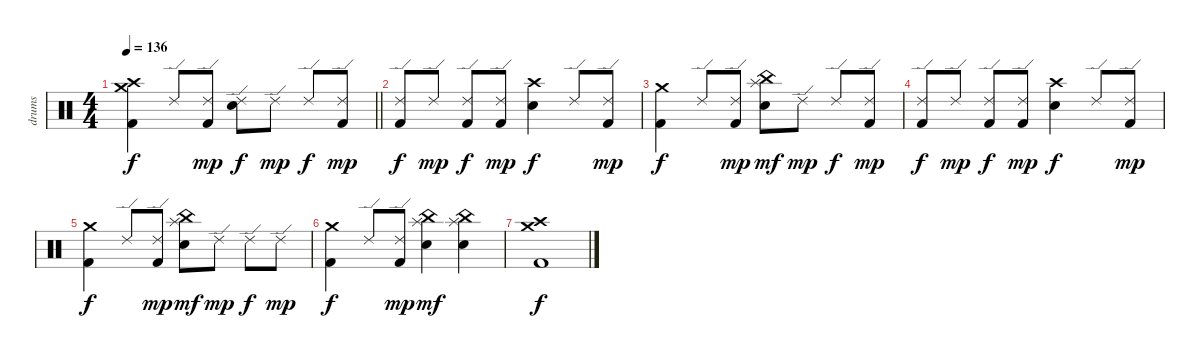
\track ("drums" "drums") {instrument percussion}
\staff {score}
\articulation defaults
\ts (4 4)
\tempo 136
\clef neutral
\barLineRight lightlight
\ks c
("Crash high (hit)" "Crash medium (hit)" "Kick (hit) 2").4{dy f} "Ride (edge) 2".8 ("Ride (edge) 2" "Kick (hit) 2").8{dy mp} ("Ride (edge) 2" "Electric Snare (hit)").8{dy f} "Ride (edge) 2".8{dy mp} "Ride (edge) 2".8{dy f} ("Ride (edge) 2" "Kick (hit) 2").8{dy mp} |
("Ride (edge) 2" "Kick (hit) 2").8{dy f} "Ride (edge) 2".8{dy mp} ("Ride (edge) 2" "Kick (hit) 2").8{dy f} ("Ride (edge) 2" "Kick (hit) 2").8{dy mp} ("Crash high (hit)" "Electric Snare (hit)").4{dy f} "Ride (edge) 2".8 ("Ride (edge) 2" "Kick (hit) 2").8{dy mp} |
("Crash medium (hit)" "Kick (hit) 2").4{dy f} "Ride (edge) 2".8 ("Ride (edge) 2" "Kick (hit) 2").8{dy mp} ("Splash (hit)" "China (hit)" "Electric Snare (hit)").8{dy mf} "Ride (edge) 2".8{dy mp} "Ride (edge) 2".8{dy f} ("Ride (edge) 2" "Kick (hit) 2").8{dy mp} |
("Ride (edge) 2" "Kick (hit) 2").8{dy f} "Ride (edge) 2".8{dy mp} ("Ride (edge) 2" "Kick (hit) 2").8{dy f} ("Ride (edge) 2" "Kick (hit) 2").8{dy mp} ("Crash high (hit)" "Electric Snare (hit)").4{dy f} "Ride (edge) 2".8 ("Ride (edge) 2" "Kick (hit) 2").8{dy mp} |
("Crash medium (hit)" "Kick (hit) 2").4{dy f} "Ride (edge) 2".8 ("Ride (edge) 2" "Kick (hit) 2").8{dy mp} ("Splash (hit)" "China (hit)" "Electric Snare (hit)").8{dy mf} "Ride (edge) 2".8{dy mp} "Ride (edge) 2".8{dy f} "Ride (edge) 2".8{dy mp} |
("Crash medium (hit)" "Kick (hit) 2").4{dy f} "Ride (edge) 2".8 ("Ride (edge) 2" "Kick (hit) 2").8{dy mp} ("Splash (hit)" "China (hit)" "Electric Snare (hit)").4{dy mf} ("Splash (hit)" "China (hit)" "Electric Snare (hit)").4 |
("Crash medium (hit)" "Crash high (hit)" "Kick (hit) 2").1{dy f}
